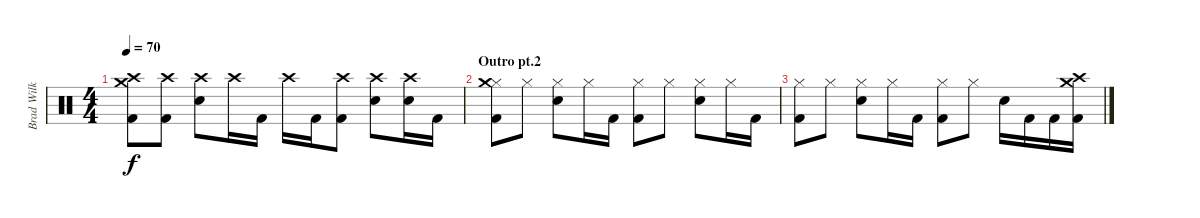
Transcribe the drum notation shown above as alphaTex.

\track ("Brad Wilk (percussion)" "Brad Wilk ") {instrument percussion}
\staff {score}
\articulation defaults
\ts (4 4)
\tempo 70
\clef neutral
\ks c
("Crash high (hit)" "Crash medium (hit)" "Kick (hit) 2").8{dy f} ("Crash high (hit)" "Kick (hit) 2").8 ("Crash high (hit)" "Electric Snare (hit)").8 "Crash high (hit)".16 "Kick (hit) 2".16 "Crash high (hit)".16 "Kick (hit) 2".16 ("Crash high (hit)" "Kick (hit) 2").8 ("Crash high (hit)" "Electric Snare (hit)").8 ("Crash high (hit)" "Electric Snare (hit)").16 "Kick (hit) 2".16 |
\section ("" "Outro pt.2")
("Hi-Hat (closed)" "Crash medium (hit)" "Kick (hit) 2").8 "Hi-Hat (closed)".8 ("Hi-Hat (closed)" "Electric Snare (hit)").8 "Hi-Hat (closed)".16 "Kick (hit) 2".16 ("Hi-Hat (closed)" "Kick (hit) 2").8 "Hi-Hat (closed)".8 ("Hi-Hat (closed)" "Electric Snare (hit)").8 "Hi-Hat (closed)".16 "Kick (hit) 2".16 |
("Hi-Hat (closed)" "Kick (hit) 2").8 "Hi-Hat (closed)".8 ("Hi-Hat (closed)" "Electric Snare (hit)").8 "Hi-Hat (closed)".16 "Kick (hit) 2".16 ("Hi-Hat (closed)" "Kick (hit) 2").8 "Hi-Hat (closed)".8 "Electric Snare (hit)".16 "Kick (hit) 2".16 "Kick (hit) 2".16 ("Crash medium (hit)" "Crash high (hit)" "Kick (hit) 2").16
